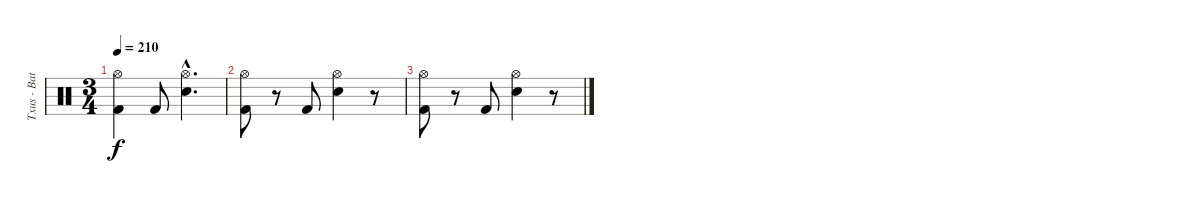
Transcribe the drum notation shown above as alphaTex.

\track ("Txus - Batería" "Txus - Bat") {instrument percussion}
\staff {score}
\articulation defaults
\ts (3 4)
\tempo 210
\clef neutral
\ks c
("Hi-Hat (open)" "Kick (hit) 2").4{dy f} "Kick (hit) 2".8 ("Hi-Hat (open)"{hac} "Electric Snare (hit)"{hac}).4{d} |
("Kick (hit) 2" "Hi-Hat (open)").8 r.8 "Kick (hit) 2".8 ("Electric Snare (hit)" "Hi-Hat (open)").4 r.8 |
("Kick (hit) 2" "Hi-Hat (open)").8 r.8 "Kick (hit) 2".8 ("Electric Snare (hit)" "Hi-Hat (open)").4 r.8
